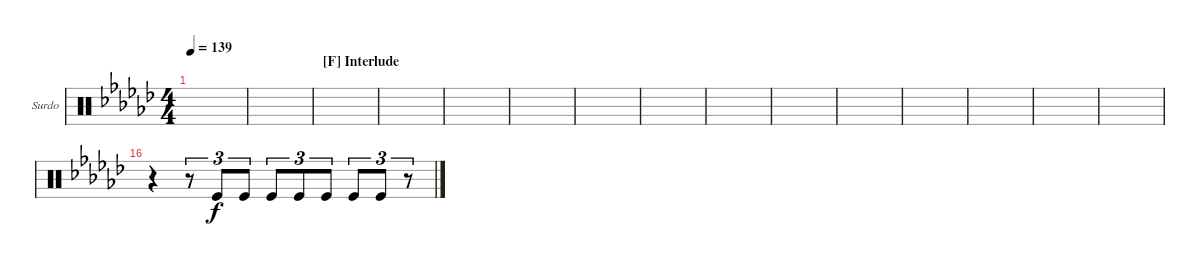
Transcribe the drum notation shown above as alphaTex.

\bracketExtendMode groupsimilarinstruments
\firstSystemTrackNameOrientation horizontal
\otherSystemsTrackNameOrientation horizontal
\defaultBarNumberDisplay FirstOfSystem
\track ("Surdo" "Surdo") {instrument percussion}
\staff {score}
\articulation defaults
\ts (4 4)
\tempo 139
\clef neutral
\ks gb
|
|
\section ("F" "Interlude")
|
|
|
|
|
|
|
|
|
|
|
|
|
r.4 r.8{tu (3 2)} "Kick (hit)".8{tu (3 2)} "Kick (hit)".8{tu (3 2)} "Kick (hit)".8{tu (3 2)} "Kick (hit)".8{tu (3 2)} "Kick (hit)".8{tu (3 2)} "Kick (hit)".8{tu (3 2)} "Kick (hit)".8{tu (3 2)} r.8{tu (3 2)}
